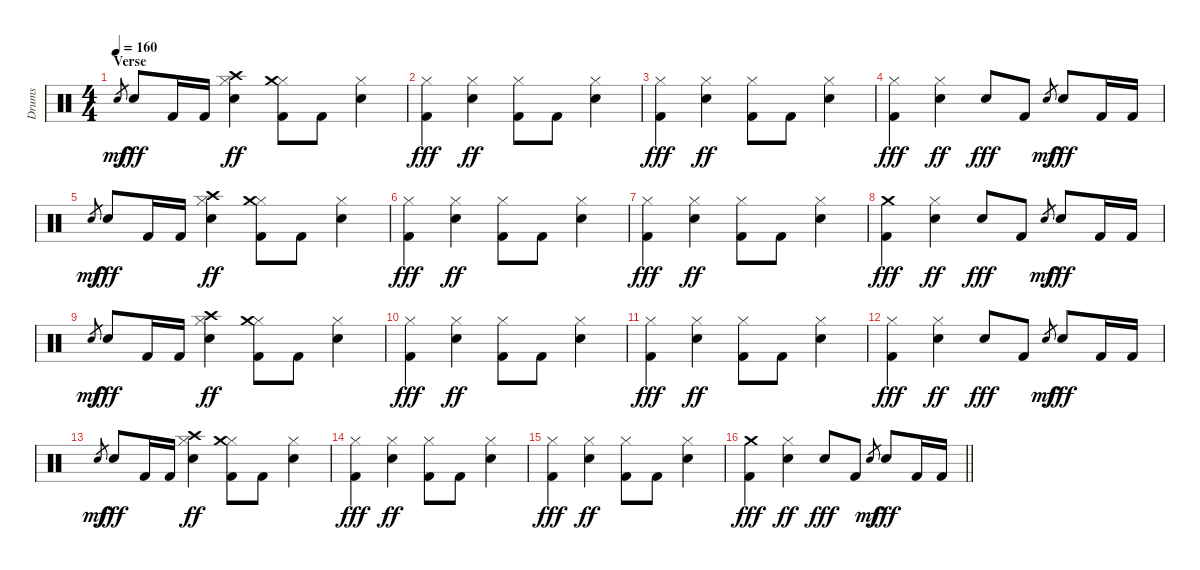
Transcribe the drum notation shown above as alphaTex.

\track ("Drums" "Drums") {instrument percussion}
\staff {score}
\articulation defaults
\ts (4 4)
\section ("" "Verse")
\tempo 160
\clef neutral
\ks c "Electric Snare (hit)".8{gr dy mf} "Electric Snare (hit)".8{dy fff} "Kick (hit) 2".16 "Kick (hit) 2".16
("Hi-Hat (closed)" "Crash high (hit)" "Electric Snare (hit)").4{dy ff} ("Hi-Hat (closed)" "Crash medium (hit)" "Kick (hit) 2").8 "Kick (hit) 2".8 ("Hi-Hat (closed)" "Electric Snare (hit)").4 |
("Hi-Hat (closed)" "Kick (hit) 2").4{dy fff} ("Hi-Hat (closed)" "Electric Snare (hit)").4{dy ff} ("Hi-Hat (closed)" "Kick (hit) 2").8 "Kick (hit) 2".8 ("Hi-Hat (closed)" "Electric Snare (hit)").4 |
("Hi-Hat (closed)" "Kick (hit) 2").4{dy fff} ("Hi-Hat (closed)" "Electric Snare (hit)").4{dy ff} ("Hi-Hat (closed)" "Kick (hit) 2").8 "Kick (hit) 2".8 ("Hi-Hat (closed)" "Electric Snare (hit)").4 |
("Hi-Hat (closed)" "Kick (hit) 2").4{dy fff} ("Hi-Hat (closed)" "Electric Snare (hit)").4{dy ff} "Electric Snare (hit)".8{dy fff} "Kick (hit) 2".8 "Electric Snare (hit)".8{gr dy mf} "Electric Snare (hit)".8{dy fff} "Kick (hit) 2".16 "Kick (hit) 2".16 |
"Electric Snare (hit)".8{gr dy mf} "Electric Snare (hit)".8{dy fff} "Kick (hit) 2".16 "Kick (hit) 2".16 ("Hi-Hat (closed)" "Crash high (hit)" "Electric Snare (hit)").4{dy ff} ("Hi-Hat (closed)" "Crash medium (hit)" "Kick (hit) 2").8 "Kick (hit) 2".8 ("Hi-Hat (closed)" "Electric Snare (hit)").4 |
("Hi-Hat (closed)" "Kick (hit) 2").4{dy fff} ("Hi-Hat (closed)" "Electric Snare (hit)").4{dy ff} ("Hi-Hat (closed)" "Kick (hit) 2").8 "Kick (hit) 2".8 ("Hi-Hat (closed)" "Electric Snare (hit)").4 |
("Hi-Hat (closed)" "Kick (hit) 2").4{dy fff} ("Hi-Hat (closed)" "Electric Snare (hit)").4{dy ff} ("Hi-Hat (closed)" "Kick (hit) 2").8 "Kick (hit) 2".8 ("Hi-Hat (closed)" "Electric Snare (hit)").4 |
("Crash medium (hit)" "Kick (hit) 2").4{dy fff} ("Hi-Hat (closed)" "Electric Snare (hit)").4{dy ff} "Electric Snare (hit)".8{dy fff} "Kick (hit) 2".8 "Electric Snare (hit)".8{gr dy mf} "Electric Snare (hit)".8{dy fff} "Kick (hit) 2".16 "Kick (hit) 2".16 |
"Electric Snare (hit)".8{gr dy mf} "Electric Snare (hit)".8{dy fff} "Kick (hit) 2".16 "Kick (hit) 2".16 ("Hi-Hat (closed)" "Crash high (hit)" "Electric Snare (hit)").4{dy ff} ("Hi-Hat (closed)" "Crash medium (hit)" "Kick (hit) 2").8 "Kick (hit) 2".8 ("Hi-Hat (closed)" "Electric Snare (hit)").4 |
("Hi-Hat (closed)" "Kick (hit) 2").4{dy fff} ("Hi-Hat (closed)" "Electric Snare (hit)").4{dy ff} ("Hi-Hat (closed)" "Kick (hit) 2").8 "Kick (hit) 2".8 ("Hi-Hat (closed)" "Electric Snare (hit)").4 |
("Hi-Hat (closed)" "Kick (hit) 2").4{dy fff} ("Hi-Hat (closed)" "Electric Snare (hit)").4{dy ff} ("Hi-Hat (closed)" "Kick (hit) 2").8 "Kick (hit) 2".8 ("Hi-Hat (closed)" "Electric Snare (hit)").4 |
("Hi-Hat (closed)" "Kick (hit) 2").4{dy fff} ("Hi-Hat (closed)" "Electric Snare (hit)").4{dy ff} "Electric Snare (hit)".8{dy fff} "Kick (hit) 2".8 "Electric Snare (hit)".8{gr dy mf} "Electric Snare (hit)".8{dy fff} "Kick (hit) 2".16 "Kick (hit) 2".16 |
"Electric Snare (hit)".8{gr dy mf} "Electric Snare (hit)".8{dy fff} "Kick (hit) 2".16 "Kick (hit) 2".16 ("Hi-Hat (closed)" "Crash high (hit)" "Electric Snare (hit)").4{dy ff} ("Hi-Hat (closed)" "Crash medium (hit)" "Kick (hit) 2").8 "Kick (hit) 2".8 ("Hi-Hat (closed)" "Electric Snare (hit)").4 |
("Hi-Hat (closed)" "Kick (hit) 2").4{dy fff} ("Hi-Hat (closed)" "Electric Snare (hit)").4{dy ff} ("Hi-Hat (closed)" "Kick (hit) 2").8 "Kick (hit) 2".8 ("Hi-Hat (closed)" "Electric Snare (hit)").4 |
("Hi-Hat (closed)" "Kick (hit) 2").4{dy fff} ("Hi-Hat (closed)" "Electric Snare (hit)").4{dy ff} ("Hi-Hat (closed)" "Kick (hit) 2").8 "Kick (hit) 2".8 ("Hi-Hat (closed)" "Electric Snare (hit)").4 |
\barLineRight lightlight
("Crash medium (hit)" "Kick (hit) 2").4{dy fff} ("Hi-Hat (closed)" "Electric Snare (hit)").4{dy ff} "Electric Snare (hit)".8{dy fff} "Kick (hit) 2".8 "Electric Snare (hit)".8{gr dy mf} "Electric Snare (hit)".8{dy fff} "Kick (hit) 2".16 "Kick (hit) 2".16
